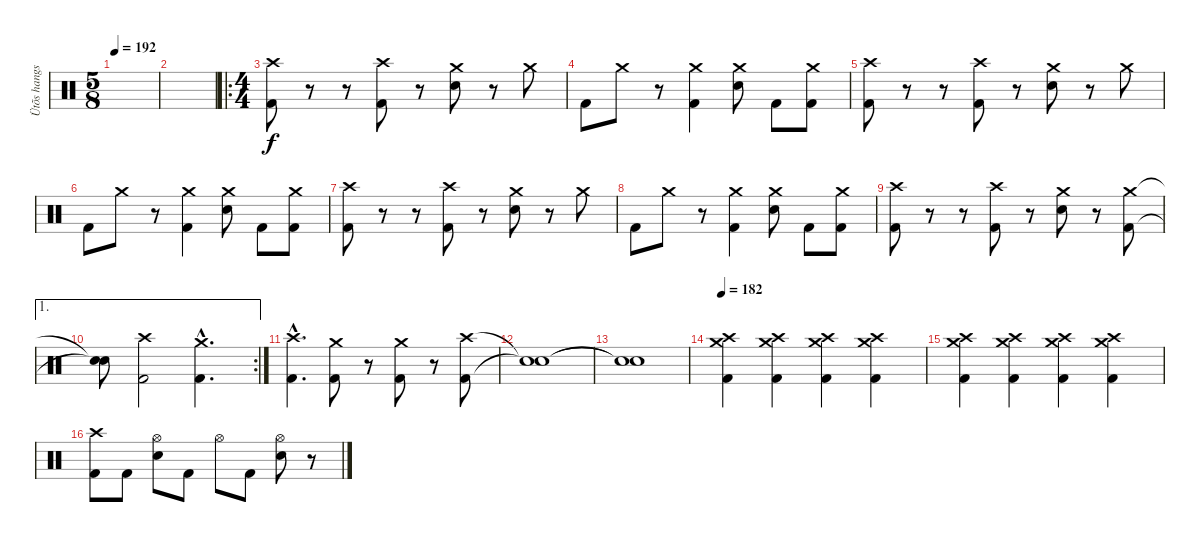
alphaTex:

\track ("Ütõs hangszer" "Ütõs hangs") {instrument percussion}
\staff {score}
\articulation defaults
\ts (5 8)
\tempo 192
\clef neutral
\ks c
|
|
\ro
\ts (4 4)
("Crash high (hit)" "Kick (hit) 2").8 r.8 r.8 ("Crash high (hit)" "Kick (hit) 2").8 r.8 ("Crash medium (hit)" "Electric Snare (hit)").8 r.8 "Crash medium (hit)".8 |
"Kick (hit) 2".8 "Crash medium (hit)".8 r.8 ("Crash medium (hit)" "Kick (hit) 2").4 ("Crash medium (hit)" "Electric Snare (hit)").8 "Kick (hit) 2".8 ("Crash medium (hit)" "Kick (hit) 2").8 |
("Crash high (hit)" "Kick (hit) 2").8 r.8 r.8 ("Crash high (hit)" "Kick (hit) 2").8 r.8 ("Crash medium (hit)" "Electric Snare (hit)").8 r.8 "Crash medium (hit)".8 |
"Kick (hit) 2".8 "Crash medium (hit)".8 r.8 ("Crash medium (hit)" "Kick (hit) 2").4 ("Crash medium (hit)" "Electric Snare (hit)").8 "Kick (hit) 2".8 ("Crash medium (hit)" "Kick (hit) 2").8 |
("Crash high (hit)" "Kick (hit) 2").8 r.8 r.8 ("Crash high (hit)" "Kick (hit) 2").8 r.8 ("Crash medium (hit)" "Electric Snare (hit)").8 r.8 "Crash medium (hit)".8 |
"Kick (hit) 2".8 "Crash medium (hit)".8 r.8 ("Crash medium (hit)" "Kick (hit) 2").4 ("Crash medium (hit)" "Electric Snare (hit)").8 "Kick (hit) 2".8 ("Crash medium (hit)" "Kick (hit) 2").8 |
("Crash high (hit)" "Kick (hit) 2").8 r.8 r.8 ("Crash high (hit)" "Kick (hit) 2").8 r.8 ("Crash medium (hit)" "Electric Snare (hit)").8 r.8 ("Crash medium (hit)" "Kick (hit) 2").8 |
\ae 1
\rc 2
("Snare (hit)"{t} "Snare (hit)"{t}).8 ("Crash high (hit)" "Kick (hit) 2").2 ("Crash medium (hit)"{hac} "Kick (hit) 2"{hac}).4{d} |
("Crash high (hit)"{hac} "Kick (hit) 2"{hac}).4{d} ("Crash medium (hit)" "Kick (hit) 2").8 r.8 ("Crash medium (hit)" "Kick (hit) 2").8 r.8 ("Crash high (hit)" "Kick (hit) 2").8 |
("Snare (hit)"{t} "Snare (hit)"{t}).1 |
("Snare (hit)"{t} "Snare (hit)"{t}).1 |
\tempo 182
("Crash high (hit)" "Crash medium (hit)" "Kick (hit) 2").4 ("Crash high (hit)" "Crash medium (hit)" "Kick (hit) 2").4 ("Crash high (hit)" "Crash medium (hit)" "Kick (hit) 2").4 ("Crash high (hit)" "Crash medium (hit)" "Kick (hit) 2").4 |
("Crash high (hit)" "Crash medium (hit)" "Kick (hit) 2").4 ("Crash high (hit)" "Crash medium (hit)" "Kick (hit) 2").4 ("Crash high (hit)" "Crash medium (hit)" "Kick (hit) 2").4 ("Crash high (hit)" "Crash medium (hit)" "Kick (hit) 2").4 |
("Crash high (hit)" "Kick (hit) 2").8 "Kick (hit) 2".8 ("Hi-Hat (open)" "Electric Snare (hit)").8 "Kick (hit) 2".8 "Hi-Hat (open)".8 "Kick (hit) 2".8 ("Hi-Hat (open)" "Electric Snare (hit)").8 r.8
